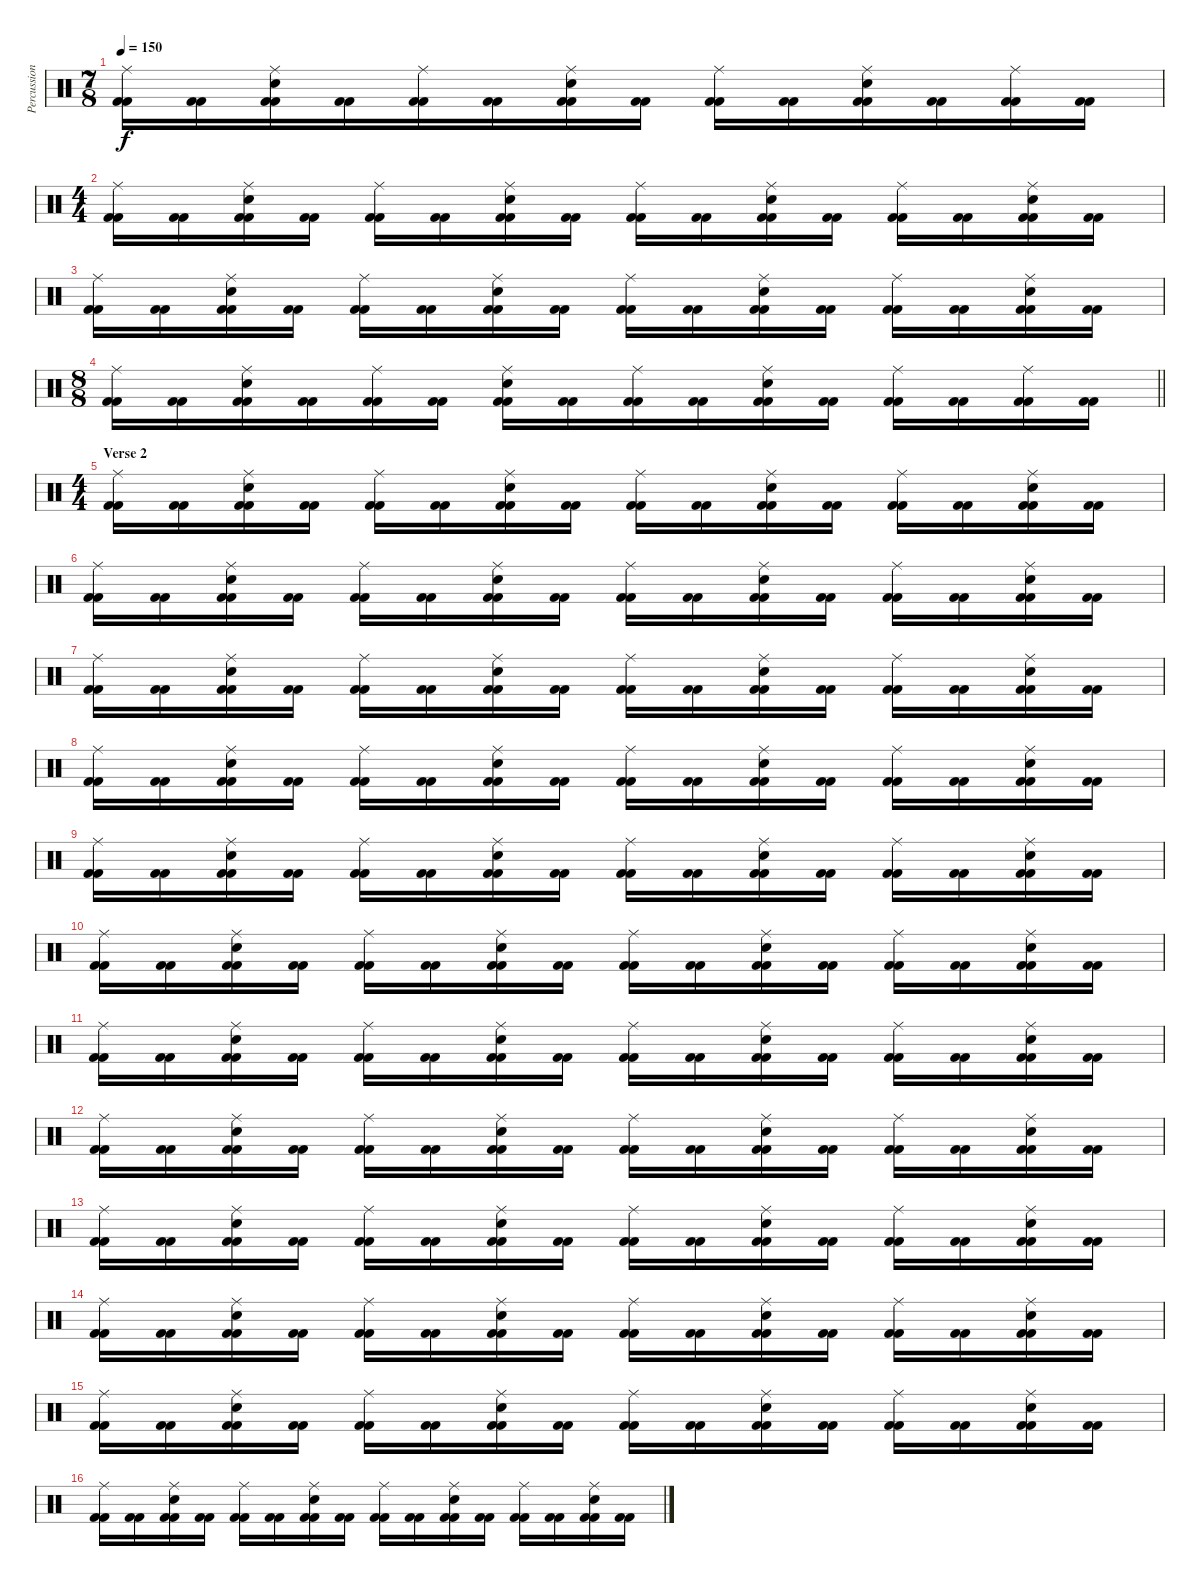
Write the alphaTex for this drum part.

\track ("Percussion" "Percussion") {instrument percussion}
\staff {score}
\articulation defaults
\ts (7 8)
\tempo 150
\clef neutral
\ks c
("Kick (hit) 2" "Kick (hit) 2" "Ride (middle)").16{dy f} ("Kick (hit) 2" "Kick (hit) 2").16 ("Kick (hit) 2" "Kick (hit) 2" "Electric Snare (hit)" "Ride (middle)").16 ("Kick (hit) 2" "Kick (hit) 2").16 ("Kick (hit) 2" "Kick (hit) 2" "Ride (middle)").16 ("Kick (hit) 2" "Kick (hit) 2").16 ("Kick (hit) 2" "Kick (hit) 2" "Electric Snare (hit)" "Ride (middle)").16 ("Kick (hit) 2" "Kick (hit) 2").16 ("Kick (hit) 2" "Kick (hit) 2" "Ride (middle)").16 ("Kick (hit) 2" "Kick (hit) 2").16 ("Kick (hit) 2" "Kick (hit) 2" "Electric Snare (hit)" "Ride (middle)").16 ("Kick (hit) 2" "Kick (hit) 2").16 ("Kick (hit) 2" "Kick (hit) 2" "Ride (middle)").16 ("Kick (hit) 2" "Kick (hit) 2").16 |
\ts (4 4)
("Kick (hit) 2" "Kick (hit) 2" "Ride (middle)").16 ("Kick (hit) 2" "Kick (hit) 2").16 ("Kick (hit) 2" "Kick (hit) 2" "Electric Snare (hit)" "Ride (middle)").16 ("Kick (hit) 2" "Kick (hit) 2").16 ("Kick (hit) 2" "Kick (hit) 2" "Ride (middle)").16 ("Kick (hit) 2" "Kick (hit) 2").16 ("Kick (hit) 2" "Kick (hit) 2" "Electric Snare (hit)" "Ride (middle)").16 ("Kick (hit) 2" "Kick (hit) 2").16 ("Kick (hit) 2" "Kick (hit) 2" "Ride (middle)").16 ("Kick (hit) 2" "Kick (hit) 2").16 ("Kick (hit) 2" "Kick (hit) 2" "Electric Snare (hit)" "Ride (middle)").16 ("Kick (hit) 2" "Kick (hit) 2").16 ("Kick (hit) 2" "Kick (hit) 2" "Ride (middle)").16 ("Kick (hit) 2" "Kick (hit) 2").16 ("Kick (hit) 2" "Kick (hit) 2" "Electric Snare (hit)" "Ride (middle)").16 ("Kick (hit) 2" "Kick (hit) 2").16 |
("Kick (hit) 2" "Kick (hit) 2" "Ride (middle)").16 ("Kick (hit) 2" "Kick (hit) 2").16 ("Kick (hit) 2" "Kick (hit) 2" "Electric Snare (hit)" "Ride (middle)").16 ("Kick (hit) 2" "Kick (hit) 2").16 ("Kick (hit) 2" "Kick (hit) 2" "Ride (middle)").16 ("Kick (hit) 2" "Kick (hit) 2").16 ("Kick (hit) 2" "Kick (hit) 2" "Electric Snare (hit)" "Ride (middle)").16 ("Kick (hit) 2" "Kick (hit) 2").16 ("Kick (hit) 2" "Kick (hit) 2" "Ride (middle)").16 ("Kick (hit) 2" "Kick (hit) 2").16 ("Kick (hit) 2" "Kick (hit) 2" "Electric Snare (hit)" "Ride (middle)").16 ("Kick (hit) 2" "Kick (hit) 2").16 ("Kick (hit) 2" "Kick (hit) 2" "Ride (middle)").16 ("Kick (hit) 2" "Kick (hit) 2").16 ("Kick (hit) 2" "Kick (hit) 2" "Electric Snare (hit)" "Ride (middle)").16 ("Kick (hit) 2" "Kick (hit) 2").16 |
\ts (8 8)
\barLineRight lightlight
("Kick (hit) 2" "Kick (hit) 2" "Ride (middle)").16 ("Kick (hit) 2" "Kick (hit) 2").16 ("Kick (hit) 2" "Kick (hit) 2" "Electric Snare (hit)" "Ride (middle)").16 ("Kick (hit) 2" "Kick (hit) 2").16 ("Kick (hit) 2" "Kick (hit) 2" "Ride (middle)").16 ("Kick (hit) 2" "Kick (hit) 2").16 ("Kick (hit) 2" "Kick (hit) 2" "Electric Snare (hit)" "Ride (middle)").16 ("Kick (hit) 2" "Kick (hit) 2").16 ("Kick (hit) 2" "Kick (hit) 2" "Ride (middle)").16 ("Kick (hit) 2" "Kick (hit) 2").16 ("Kick (hit) 2" "Kick (hit) 2" "Electric Snare (hit)" "Ride (middle)").16 ("Kick (hit) 2" "Kick (hit) 2").16 ("Kick (hit) 2" "Kick (hit) 2" "Ride (middle)").16 ("Kick (hit) 2" "Kick (hit) 2").16 ("Kick (hit) 2" "Kick (hit) 2" "Ride (middle)").16 ("Kick (hit) 2" "Kick (hit) 2").16 |
\ts (4 4)
\section ("" "Verse 2")
("Kick (hit) 2" "Kick (hit) 2" "Ride (middle)").16 ("Kick (hit) 2" "Kick (hit) 2").16 ("Kick (hit) 2" "Kick (hit) 2" "Electric Snare (hit)" "Ride (middle)").16 ("Kick (hit) 2" "Kick (hit) 2").16 ("Kick (hit) 2" "Kick (hit) 2" "Ride (middle)").16 ("Kick (hit) 2" "Kick (hit) 2").16 ("Kick (hit) 2" "Kick (hit) 2" "Electric Snare (hit)" "Ride (middle)").16 ("Kick (hit) 2" "Kick (hit) 2").16 ("Kick (hit) 2" "Kick (hit) 2" "Ride (middle)").16 ("Kick (hit) 2" "Kick (hit) 2").16 ("Kick (hit) 2" "Kick (hit) 2" "Electric Snare (hit)" "Ride (middle)").16 ("Kick (hit) 2" "Kick (hit) 2").16 ("Kick (hit) 2" "Kick (hit) 2" "Ride (middle)").16 ("Kick (hit) 2" "Kick (hit) 2").16 ("Kick (hit) 2" "Kick (hit) 2" "Electric Snare (hit)" "Ride (middle)").16 ("Kick (hit) 2" "Kick (hit) 2").16 |
("Kick (hit) 2" "Kick (hit) 2" "Ride (middle)").16 ("Kick (hit) 2" "Kick (hit) 2").16 ("Kick (hit) 2" "Kick (hit) 2" "Electric Snare (hit)" "Ride (middle)").16 ("Kick (hit) 2" "Kick (hit) 2").16 ("Kick (hit) 2" "Kick (hit) 2" "Ride (middle)").16 ("Kick (hit) 2" "Kick (hit) 2").16 ("Kick (hit) 2" "Kick (hit) 2" "Electric Snare (hit)" "Ride (middle)").16 ("Kick (hit) 2" "Kick (hit) 2").16 ("Kick (hit) 2" "Kick (hit) 2" "Ride (middle)").16 ("Kick (hit) 2" "Kick (hit) 2").16 ("Kick (hit) 2" "Kick (hit) 2" "Electric Snare (hit)" "Ride (middle)").16 ("Kick (hit) 2" "Kick (hit) 2").16 ("Kick (hit) 2" "Kick (hit) 2" "Ride (middle)").16 ("Kick (hit) 2" "Kick (hit) 2").16 ("Kick (hit) 2" "Kick (hit) 2" "Electric Snare (hit)" "Ride (middle)").16 ("Kick (hit) 2" "Kick (hit) 2").16 |
("Kick (hit) 2" "Kick (hit) 2" "Ride (middle)").16 ("Kick (hit) 2" "Kick (hit) 2").16 ("Kick (hit) 2" "Kick (hit) 2" "Electric Snare (hit)" "Ride (middle)").16 ("Kick (hit) 2" "Kick (hit) 2").16 ("Kick (hit) 2" "Kick (hit) 2" "Ride (middle)").16 ("Kick (hit) 2" "Kick (hit) 2").16 ("Kick (hit) 2" "Kick (hit) 2" "Electric Snare (hit)" "Ride (middle)").16 ("Kick (hit) 2" "Kick (hit) 2").16 ("Kick (hit) 2" "Kick (hit) 2" "Ride (middle)").16 ("Kick (hit) 2" "Kick (hit) 2").16 ("Kick (hit) 2" "Kick (hit) 2" "Electric Snare (hit)" "Ride (middle)").16 ("Kick (hit) 2" "Kick (hit) 2").16 ("Kick (hit) 2" "Kick (hit) 2" "Ride (middle)").16 ("Kick (hit) 2" "Kick (hit) 2").16 ("Kick (hit) 2" "Kick (hit) 2" "Electric Snare (hit)" "Ride (middle)").16 ("Kick (hit) 2" "Kick (hit) 2").16 |
("Kick (hit) 2" "Kick (hit) 2" "Ride (middle)").16 ("Kick (hit) 2" "Kick (hit) 2").16 ("Kick (hit) 2" "Kick (hit) 2" "Electric Snare (hit)" "Ride (middle)").16 ("Kick (hit) 2" "Kick (hit) 2").16 ("Kick (hit) 2" "Kick (hit) 2" "Ride (middle)").16 ("Kick (hit) 2" "Kick (hit) 2").16 ("Kick (hit) 2" "Kick (hit) 2" "Electric Snare (hit)" "Ride (middle)").16 ("Kick (hit) 2" "Kick (hit) 2").16 ("Kick (hit) 2" "Kick (hit) 2" "Ride (middle)").16 ("Kick (hit) 2" "Kick (hit) 2").16 ("Kick (hit) 2" "Kick (hit) 2" "Electric Snare (hit)" "Ride (middle)").16 ("Kick (hit) 2" "Kick (hit) 2").16 ("Kick (hit) 2" "Kick (hit) 2" "Ride (middle)").16 ("Kick (hit) 2" "Kick (hit) 2").16 ("Kick (hit) 2" "Kick (hit) 2" "Electric Snare (hit)" "Ride (middle)").16 ("Kick (hit) 2" "Kick (hit) 2").16 |
("Kick (hit) 2" "Kick (hit) 2" "Ride (middle)").16 ("Kick (hit) 2" "Kick (hit) 2").16 ("Kick (hit) 2" "Kick (hit) 2" "Electric Snare (hit)" "Ride (middle)").16 ("Kick (hit) 2" "Kick (hit) 2").16 ("Kick (hit) 2" "Kick (hit) 2" "Ride (middle)").16 ("Kick (hit) 2" "Kick (hit) 2").16 ("Kick (hit) 2" "Kick (hit) 2" "Electric Snare (hit)" "Ride (middle)").16 ("Kick (hit) 2" "Kick (hit) 2").16 ("Kick (hit) 2" "Kick (hit) 2" "Ride (middle)").16 ("Kick (hit) 2" "Kick (hit) 2").16 ("Kick (hit) 2" "Kick (hit) 2" "Electric Snare (hit)" "Ride (middle)").16 ("Kick (hit) 2" "Kick (hit) 2").16 ("Kick (hit) 2" "Kick (hit) 2" "Ride (middle)").16 ("Kick (hit) 2" "Kick (hit) 2").16 ("Kick (hit) 2" "Kick (hit) 2" "Electric Snare (hit)" "Ride (middle)").16 ("Kick (hit) 2" "Kick (hit) 2").16 |
("Kick (hit) 2" "Kick (hit) 2" "Ride (middle)").16 ("Kick (hit) 2" "Kick (hit) 2").16 ("Kick (hit) 2" "Kick (hit) 2" "Electric Snare (hit)" "Ride (middle)").16 ("Kick (hit) 2" "Kick (hit) 2").16 ("Kick (hit) 2" "Kick (hit) 2" "Ride (middle)").16 ("Kick (hit) 2" "Kick (hit) 2").16 ("Kick (hit) 2" "Kick (hit) 2" "Electric Snare (hit)" "Ride (middle)").16 ("Kick (hit) 2" "Kick (hit) 2").16 ("Kick (hit) 2" "Kick (hit) 2" "Ride (middle)").16 ("Kick (hit) 2" "Kick (hit) 2").16 ("Kick (hit) 2" "Kick (hit) 2" "Electric Snare (hit)" "Ride (middle)").16 ("Kick (hit) 2" "Kick (hit) 2").16 ("Kick (hit) 2" "Kick (hit) 2" "Ride (middle)").16 ("Kick (hit) 2" "Kick (hit) 2").16 ("Kick (hit) 2" "Kick (hit) 2" "Electric Snare (hit)" "Ride (middle)").16 ("Kick (hit) 2" "Kick (hit) 2").16 |
("Kick (hit) 2" "Kick (hit) 2" "Ride (middle)").16 ("Kick (hit) 2" "Kick (hit) 2").16 ("Kick (hit) 2" "Kick (hit) 2" "Electric Snare (hit)" "Ride (middle)").16 ("Kick (hit) 2" "Kick (hit) 2").16 ("Kick (hit) 2" "Kick (hit) 2" "Ride (middle)").16 ("Kick (hit) 2" "Kick (hit) 2").16 ("Kick (hit) 2" "Kick (hit) 2" "Electric Snare (hit)" "Ride (middle)").16 ("Kick (hit) 2" "Kick (hit) 2").16 ("Kick (hit) 2" "Kick (hit) 2" "Ride (middle)").16 ("Kick (hit) 2" "Kick (hit) 2").16 ("Kick (hit) 2" "Kick (hit) 2" "Electric Snare (hit)" "Ride (middle)").16 ("Kick (hit) 2" "Kick (hit) 2").16 ("Kick (hit) 2" "Kick (hit) 2" "Ride (middle)").16 ("Kick (hit) 2" "Kick (hit) 2").16 ("Kick (hit) 2" "Kick (hit) 2" "Electric Snare (hit)" "Ride (middle)").16 ("Kick (hit) 2" "Kick (hit) 2").16 |
("Kick (hit) 2" "Kick (hit) 2" "Ride (middle)").16 ("Kick (hit) 2" "Kick (hit) 2").16 ("Kick (hit) 2" "Kick (hit) 2" "Electric Snare (hit)" "Ride (middle)").16 ("Kick (hit) 2" "Kick (hit) 2").16 ("Kick (hit) 2" "Kick (hit) 2" "Ride (middle)").16 ("Kick (hit) 2" "Kick (hit) 2").16 ("Kick (hit) 2" "Kick (hit) 2" "Electric Snare (hit)" "Ride (middle)").16 ("Kick (hit) 2" "Kick (hit) 2").16 ("Kick (hit) 2" "Kick (hit) 2" "Ride (middle)").16 ("Kick (hit) 2" "Kick (hit) 2").16 ("Kick (hit) 2" "Kick (hit) 2" "Electric Snare (hit)" "Ride (middle)").16 ("Kick (hit) 2" "Kick (hit) 2").16 ("Kick (hit) 2" "Kick (hit) 2" "Ride (middle)").16 ("Kick (hit) 2" "Kick (hit) 2").16 ("Kick (hit) 2" "Kick (hit) 2" "Electric Snare (hit)" "Ride (middle)").16 ("Kick (hit) 2" "Kick (hit) 2").16 |
("Kick (hit) 2" "Kick (hit) 2" "Ride (middle)").16 ("Kick (hit) 2" "Kick (hit) 2").16 ("Kick (hit) 2" "Kick (hit) 2" "Electric Snare (hit)" "Ride (middle)").16 ("Kick (hit) 2" "Kick (hit) 2").16 ("Kick (hit) 2" "Kick (hit) 2" "Ride (middle)").16 ("Kick (hit) 2" "Kick (hit) 2").16 ("Kick (hit) 2" "Kick (hit) 2" "Electric Snare (hit)" "Ride (middle)").16 ("Kick (hit) 2" "Kick (hit) 2").16 ("Kick (hit) 2" "Kick (hit) 2" "Ride (middle)").16 ("Kick (hit) 2" "Kick (hit) 2").16 ("Kick (hit) 2" "Kick (hit) 2" "Electric Snare (hit)" "Ride (middle)").16 ("Kick (hit) 2" "Kick (hit) 2").16 ("Kick (hit) 2" "Kick (hit) 2" "Ride (middle)").16 ("Kick (hit) 2" "Kick (hit) 2").16 ("Kick (hit) 2" "Kick (hit) 2" "Electric Snare (hit)" "Ride (middle)").16 ("Kick (hit) 2" "Kick (hit) 2").16 |
("Kick (hit) 2" "Kick (hit) 2" "Ride (middle)").16 ("Kick (hit) 2" "Kick (hit) 2").16 ("Kick (hit) 2" "Kick (hit) 2" "Electric Snare (hit)" "Ride (middle)").16 ("Kick (hit) 2" "Kick (hit) 2").16 ("Kick (hit) 2" "Kick (hit) 2" "Ride (middle)").16 ("Kick (hit) 2" "Kick (hit) 2").16 ("Kick (hit) 2" "Kick (hit) 2" "Electric Snare (hit)" "Ride (middle)").16 ("Kick (hit) 2" "Kick (hit) 2").16 ("Kick (hit) 2" "Kick (hit) 2" "Ride (middle)").16 ("Kick (hit) 2" "Kick (hit) 2").16 ("Kick (hit) 2" "Kick (hit) 2" "Electric Snare (hit)" "Ride (middle)").16 ("Kick (hit) 2" "Kick (hit) 2").16 ("Kick (hit) 2" "Kick (hit) 2" "Ride (middle)").16 ("Kick (hit) 2" "Kick (hit) 2").16 ("Kick (hit) 2" "Kick (hit) 2" "Electric Snare (hit)" "Ride (middle)").16 ("Kick (hit) 2" "Kick (hit) 2").16 |
("Kick (hit) 2" "Kick (hit) 2" "Ride (middle)").16 ("Kick (hit) 2" "Kick (hit) 2").16 ("Kick (hit) 2" "Kick (hit) 2" "Electric Snare (hit)" "Ride (middle)").16 ("Kick (hit) 2" "Kick (hit) 2").16 ("Kick (hit) 2" "Kick (hit) 2" "Ride (middle)").16 ("Kick (hit) 2" "Kick (hit) 2").16 ("Kick (hit) 2" "Kick (hit) 2" "Electric Snare (hit)" "Ride (middle)").16 ("Kick (hit) 2" "Kick (hit) 2").16 ("Kick (hit) 2" "Kick (hit) 2" "Ride (middle)").16 ("Kick (hit) 2" "Kick (hit) 2").16 ("Kick (hit) 2" "Kick (hit) 2" "Electric Snare (hit)" "Ride (middle)").16 ("Kick (hit) 2" "Kick (hit) 2").16 ("Kick (hit) 2" "Kick (hit) 2" "Ride (middle)").16 ("Kick (hit) 2" "Kick (hit) 2").16 ("Kick (hit) 2" "Kick (hit) 2" "Electric Snare (hit)" "Ride (middle)").16 ("Kick (hit) 2" "Kick (hit) 2").16 |
("Kick (hit) 2" "Kick (hit) 2" "Ride (middle)").16 ("Kick (hit) 2" "Kick (hit) 2").16 ("Kick (hit) 2" "Kick (hit) 2" "Electric Snare (hit)" "Ride (middle)").16 ("Kick (hit) 2" "Kick (hit) 2").16 ("Kick (hit) 2" "Kick (hit) 2" "Ride (middle)").16 ("Kick (hit) 2" "Kick (hit) 2").16 ("Kick (hit) 2" "Kick (hit) 2" "Electric Snare (hit)" "Ride (middle)").16 ("Kick (hit) 2" "Kick (hit) 2").16 ("Kick (hit) 2" "Kick (hit) 2" "Ride (middle)").16 ("Kick (hit) 2" "Kick (hit) 2").16 ("Kick (hit) 2" "Kick (hit) 2" "Electric Snare (hit)" "Ride (middle)").16 ("Kick (hit) 2" "Kick (hit) 2").16 ("Kick (hit) 2" "Kick (hit) 2" "Ride (middle)").16 ("Kick (hit) 2" "Kick (hit) 2").16 ("Kick (hit) 2" "Kick (hit) 2" "Electric Snare (hit)" "Ride (middle)").16 ("Kick (hit) 2" "Kick (hit) 2").16
